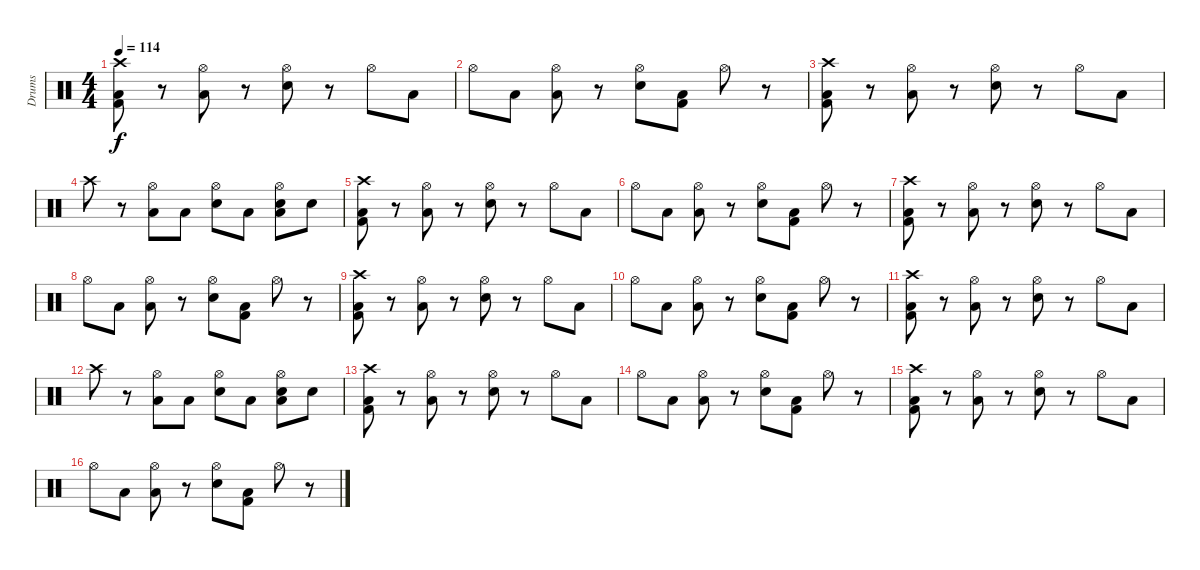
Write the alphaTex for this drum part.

\track ("Drums" "Drums") {instrument percussion}
\staff {score}
\articulation defaults
\ts (4 4)
\tempo 114
\clef neutral
\ks c
("Crash high (hit)" "Kick (hit) 2" "Low Floor Tom (hit)").8{dy f} r.8 ("Hi-Hat (open)" "Low Floor Tom (hit)").8 r.8 ("Hi-Hat (open)" "Snare (hit) 2").8 r.8 "Hi-Hat (open)".8 "Low Floor Tom (hit)".8 |
"Hi-Hat (open)".8 "Low Floor Tom (hit)".8 ("Hi-Hat (open)" "Low Floor Tom (hit)").8 r.8 ("Hi-Hat (open)" "Snare (hit) 2").8 ("Kick (hit) 2" "Low Floor Tom (hit)").8 "Hi-Hat (open)".8 r.8 |
("Crash high (hit)" "Kick (hit) 2" "Low Floor Tom (hit)").8 r.8 ("Hi-Hat (open)" "Low Floor Tom (hit)").8 r.8 ("Hi-Hat (open)" "Snare (hit) 2").8 r.8 "Hi-Hat (open)".8 "Low Floor Tom (hit)".8 |
"Crash high (hit)".8 r.8 ("Hi-Hat (open)" "Low Floor Tom (hit)").8 "Low Floor Tom (hit)".8 ("Hi-Hat (open)" "Snare (hit) 2").8 "Low Floor Tom (hit)".8 ("Hi-Hat (open)" "Snare (hit) 2" "Low Floor Tom (hit)").8 "Snare (hit) 2".8 |
("Crash high (hit)" "Kick (hit) 2" "Low Floor Tom (hit)").8 r.8 ("Hi-Hat (open)" "Low Floor Tom (hit)").8 r.8 ("Hi-Hat (open)" "Snare (hit) 2").8 r.8 "Hi-Hat (open)".8 "Low Floor Tom (hit)".8 |
"Hi-Hat (open)".8 "Low Floor Tom (hit)".8 ("Hi-Hat (open)" "Low Floor Tom (hit)").8 r.8 ("Hi-Hat (open)" "Snare (hit) 2").8 ("Kick (hit) 2" "Low Floor Tom (hit)").8 "Hi-Hat (open)".8 r.8 |
("Crash high (hit)" "Kick (hit) 2" "Low Floor Tom (hit)").8 r.8 ("Hi-Hat (open)" "Low Floor Tom (hit)").8 r.8 ("Hi-Hat (open)" "Snare (hit) 2").8 r.8 "Hi-Hat (open)".8 "Low Floor Tom (hit)".8 |
"Hi-Hat (open)".8 "Low Floor Tom (hit)".8 ("Hi-Hat (open)" "Low Floor Tom (hit)").8 r.8 ("Hi-Hat (open)" "Snare (hit) 2").8 ("Kick (hit) 2" "Low Floor Tom (hit)").8 "Hi-Hat (open)".8 r.8 |
("Crash high (hit)" "Kick (hit) 2" "Low Floor Tom (hit)").8 r.8 ("Hi-Hat (open)" "Low Floor Tom (hit)").8 r.8 ("Hi-Hat (open)" "Snare (hit) 2").8 r.8 "Hi-Hat (open)".8 "Low Floor Tom (hit)".8 |
"Hi-Hat (open)".8 "Low Floor Tom (hit)".8 ("Hi-Hat (open)" "Low Floor Tom (hit)").8 r.8 ("Hi-Hat (open)" "Snare (hit) 2").8 ("Kick (hit) 2" "Low Floor Tom (hit)").8 "Hi-Hat (open)".8 r.8 |
("Crash high (hit)" "Kick (hit) 2" "Low Floor Tom (hit)").8 r.8 ("Hi-Hat (open)" "Low Floor Tom (hit)").8 r.8 ("Hi-Hat (open)" "Snare (hit) 2").8 r.8 "Hi-Hat (open)".8 "Low Floor Tom (hit)".8 |
"Crash high (hit)".8 r.8 ("Hi-Hat (open)" "Low Floor Tom (hit)").8 "Low Floor Tom (hit)".8 ("Hi-Hat (open)" "Snare (hit) 2").8 "Low Floor Tom (hit)".8 ("Hi-Hat (open)" "Snare (hit) 2" "Low Floor Tom (hit)").8 "Snare (hit) 2".8 |
("Crash high (hit)" "Kick (hit) 2" "Low Floor Tom (hit)").8 r.8 ("Hi-Hat (open)" "Low Floor Tom (hit)").8 r.8 ("Hi-Hat (open)" "Snare (hit) 2").8 r.8 "Hi-Hat (open)".8 "Low Floor Tom (hit)".8 |
"Hi-Hat (open)".8 "Low Floor Tom (hit)".8 ("Hi-Hat (open)" "Low Floor Tom (hit)").8 r.8 ("Hi-Hat (open)" "Snare (hit) 2").8 ("Kick (hit) 2" "Low Floor Tom (hit)").8 "Hi-Hat (open)".8 r.8 |
("Crash high (hit)" "Kick (hit) 2" "Low Floor Tom (hit)").8 r.8 ("Hi-Hat (open)" "Low Floor Tom (hit)").8 r.8 ("Hi-Hat (open)" "Snare (hit) 2").8 r.8 "Hi-Hat (open)".8 "Low Floor Tom (hit)".8 |
"Hi-Hat (open)".8 "Low Floor Tom (hit)".8 ("Hi-Hat (open)" "Low Floor Tom (hit)").8 r.8 ("Hi-Hat (open)" "Snare (hit) 2").8 ("Kick (hit) 2" "Low Floor Tom (hit)").8 "Hi-Hat (open)".8 r.8
